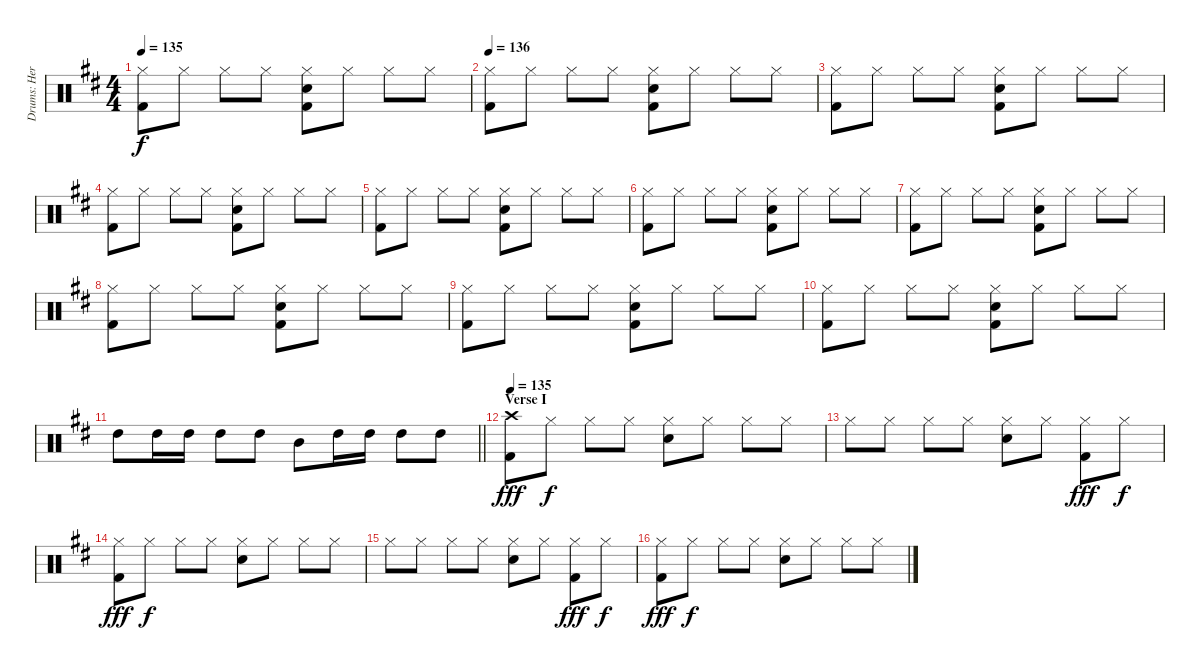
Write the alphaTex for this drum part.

\track ("Drums: Herman" "Drums: Her") {instrument percussion}
\staff {score}
\articulation defaults
\ts (4 4)
\tempo 135
\clef neutral
\ks d
("Hi-Hat (closed)" "Kick (hit) 2").8{dy f} "Hi-Hat (closed)".8 "Hi-Hat (closed)".8 "Hi-Hat (closed)".8 ("Hi-Hat (closed)" "Snare (hit) 2" "Kick (hit) 2").8 "Hi-Hat (closed)".8 "Hi-Hat (closed)".8 "Hi-Hat (closed)".8 |
\tempo 136
("Hi-Hat (closed)" "Kick (hit) 2").8 "Hi-Hat (closed)".8 "Hi-Hat (closed)".8 "Hi-Hat (closed)".8 ("Hi-Hat (closed)" "Snare (hit) 2" "Kick (hit) 2").8 "Hi-Hat (closed)".8 "Hi-Hat (closed)".8 "Hi-Hat (closed)".8 |
("Hi-Hat (closed)" "Kick (hit) 2").8 "Hi-Hat (closed)".8 "Hi-Hat (closed)".8 "Hi-Hat (closed)".8 ("Hi-Hat (closed)" "Snare (hit) 2" "Kick (hit) 2").8 "Hi-Hat (closed)".8 "Hi-Hat (closed)".8 "Hi-Hat (closed)".8 |
("Hi-Hat (closed)" "Kick (hit) 2").8 "Hi-Hat (closed)".8 "Hi-Hat (closed)".8 "Hi-Hat (closed)".8 ("Hi-Hat (closed)" "Snare (hit) 2" "Kick (hit) 2").8 "Hi-Hat (closed)".8 "Hi-Hat (closed)".8 "Hi-Hat (closed)".8 |
("Hi-Hat (closed)" "Kick (hit) 2").8 "Hi-Hat (closed)".8 "Hi-Hat (closed)".8 "Hi-Hat (closed)".8 ("Hi-Hat (closed)" "Snare (hit) 2" "Kick (hit) 2").8 "Hi-Hat (closed)".8 "Hi-Hat (closed)".8 "Hi-Hat (closed)".8 |
("Hi-Hat (closed)" "Kick (hit) 2").8 "Hi-Hat (closed)".8 "Hi-Hat (closed)".8 "Hi-Hat (closed)".8 ("Hi-Hat (closed)" "Snare (hit) 2" "Kick (hit) 2").8 "Hi-Hat (closed)".8 "Hi-Hat (closed)".8 "Hi-Hat (closed)".8 |
("Hi-Hat (closed)" "Kick (hit) 2").8 "Hi-Hat (closed)".8 "Hi-Hat (closed)".8 "Hi-Hat (closed)".8 ("Hi-Hat (closed)" "Snare (hit) 2" "Kick (hit) 2").8 "Hi-Hat (closed)".8 "Hi-Hat (closed)".8 "Hi-Hat (closed)".8 |
("Hi-Hat (closed)" "Kick (hit) 2").8 "Hi-Hat (closed)".8 "Hi-Hat (closed)".8 "Hi-Hat (closed)".8 ("Hi-Hat (closed)" "Snare (hit) 2" "Kick (hit) 2").8 "Hi-Hat (closed)".8 "Hi-Hat (closed)".8 "Hi-Hat (closed)".8 |
("Hi-Hat (closed)" "Kick (hit) 2").8 "Hi-Hat (closed)".8 "Hi-Hat (closed)".8 "Hi-Hat (closed)".8 ("Hi-Hat (closed)" "Snare (hit) 2" "Kick (hit) 2").8 "Hi-Hat (closed)".8 "Hi-Hat (closed)".8 "Hi-Hat (closed)".8 |
("Hi-Hat (closed)" "Kick (hit) 2").8 "Hi-Hat (closed)".8 "Hi-Hat (closed)".8 "Hi-Hat (closed)".8 ("Hi-Hat (closed)" "Snare (hit) 2" "Kick (hit) 2").8 "Hi-Hat (closed)".8 "Hi-Hat (closed)".8 "Hi-Hat (closed)".8 |
\barLineRight lightlight "High Tom (hit)".8 "High Tom (hit)".16 "High Tom (hit)".16 "High Tom (hit)".8 "High Tom (hit)".8 "Mid Tom (hit)".8 "High Tom (hit)".16 "High Tom (hit)".16 "High Tom (hit)".8 "High Tom (hit)".8
|
\section ("" "Verse I")
\tempo 135
("Crash high (hit)" "Kick (hit) 2").8{dy fff} "Hi-Hat (closed)".8{dy f} "Hi-Hat (closed)".8 "Hi-Hat (closed)".8 ("Hi-Hat (closed)" "Snare (hit) 2").8 "Hi-Hat (closed)".8 "Hi-Hat (closed)".8 "Hi-Hat (closed)".8 |
"Hi-Hat (closed)".8 "Hi-Hat (closed)".8 "Hi-Hat (closed)".8 "Hi-Hat (closed)".8 ("Hi-Hat (closed)" "Snare (hit) 2").8 "Hi-Hat (closed)".8 ("Hi-Hat (closed)" "Kick (hit) 2").8{dy fff} "Hi-Hat (closed)".8{dy f} |
("Hi-Hat (closed)" "Kick (hit) 2").8{dy fff} "Hi-Hat (closed)".8{dy f} "Hi-Hat (closed)".8 "Hi-Hat (closed)".8 ("Hi-Hat (closed)" "Snare (hit) 2").8 "Hi-Hat (closed)".8 "Hi-Hat (closed)".8 "Hi-Hat (closed)".8 |
"Hi-Hat (closed)".8 "Hi-Hat (closed)".8 "Hi-Hat (closed)".8 "Hi-Hat (closed)".8 ("Hi-Hat (closed)" "Snare (hit) 2").8 "Hi-Hat (closed)".8 ("Hi-Hat (closed)" "Kick (hit) 2").8{dy fff} "Hi-Hat (closed)".8{dy f} |
("Hi-Hat (closed)" "Kick (hit) 2").8{dy fff} "Hi-Hat (closed)".8{dy f} "Hi-Hat (closed)".8 "Hi-Hat (closed)".8 ("Hi-Hat (closed)" "Snare (hit) 2").8 "Hi-Hat (closed)".8 "Hi-Hat (closed)".8 "Hi-Hat (closed)".8
